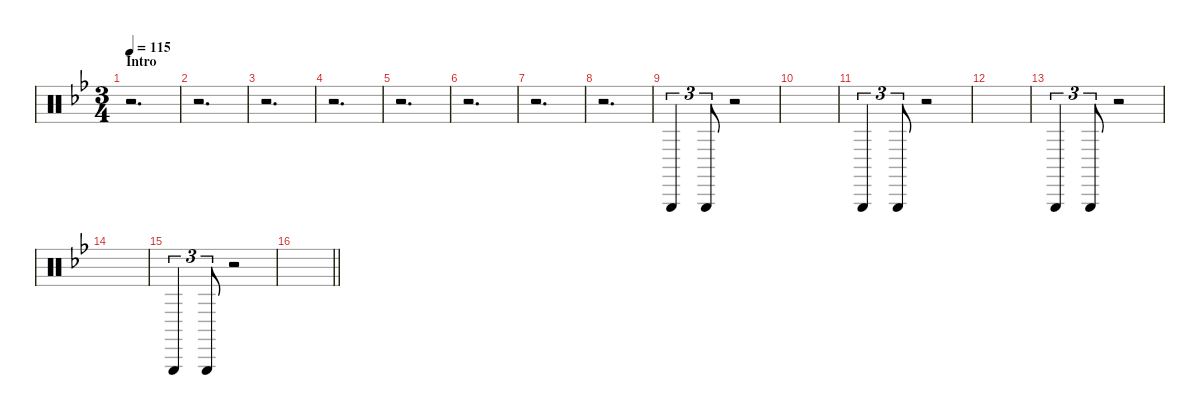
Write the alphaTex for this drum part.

\defaultSystemsLayout 4
\hideDynamics
\bracketExtendMode nobrackets
\singleTrackTrackNamePolicy hidden
\multiTrackTrackNamePolicy hidden
\firstSystemTrackNameMode fullname
\firstSystemTrackNameOrientation horizontal
\otherSystemsTrackNameOrientation horizontal
\track ("Percussion" "drm.") {defaultSystemsLayout 16 instrument percussion}
\staff {score}
\articulation defaults
\ts (3 4)
\beaming (8 2 2 2)
\section ("" "Intro")
\tempo 115
\clef neutral
\ks gminor
r.2{d dy mf beam Down} |
r.2{d beam Down} |
r.2{d beam Down} |
r.2{d beam Down} |
r.2{d beam Down} |
r.2{d beam Down} |
r.2{d beam Down} |
r.2{d beam Down} |
"Triangle (hit)"{acc forcenatural}.4{tu (3 2) beam Up} "Triangle (hit)"{acc forcenatural}.8{tu (3 2) dy p beam Up} r.2{beam Up} |
|
"Triangle (hit)"{acc forcenatural}.4{tu (3 2) dy mf beam Up} "Triangle (hit)"{acc forcenatural}.8{tu (3 2) dy p beam Up} r.2{beam Up} |
|
"Triangle (hit)"{acc forcenatural}.4{tu (3 2) dy mf beam Up} "Triangle (hit)"{acc forcenatural}.8{tu (3 2) dy p beam Up} r.2{beam Up} |
|
"Triangle (hit)"{acc forcenatural}.4{tu (3 2) dy mf beam Up} "Triangle (hit)"{acc forcenatural}.8{tu (3 2) dy p beam Up} r.2{beam Up} |
\barLineRight lightlight
